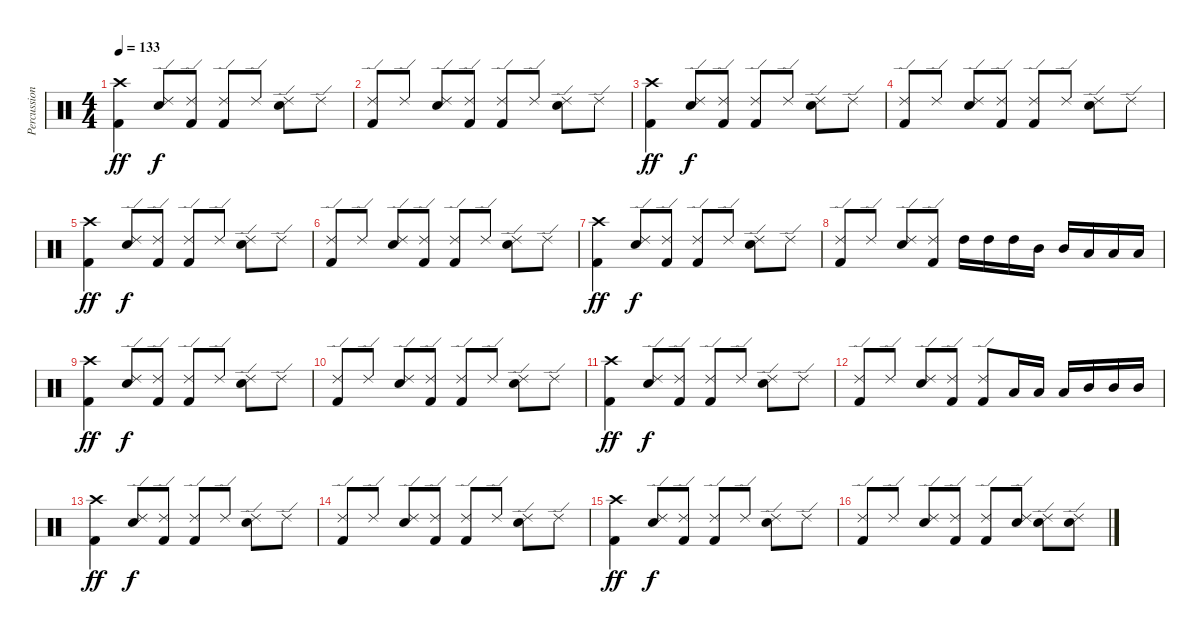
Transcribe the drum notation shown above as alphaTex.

\track ("Percussion" "Percussion") {instrument percussion}
\staff {score}
\articulation defaults
\ts (4 4)
\tempo 133
\clef neutral
\ks c
("Crash high (hit)" "Kick (hit) 2").4{dy ff} ("Ride (edge) 2" "Snare (hit) 2").8{dy f} ("Ride (edge) 2" "Kick (hit) 2").8 ("Ride (edge) 2" "Kick (hit) 2").8 "Ride (edge) 2".8 ("Ride (edge) 2" "Snare (hit) 2").8 "Ride (edge) 2".8 |
("Ride (edge) 2" "Kick (hit) 2").8 "Ride (edge) 2".8 ("Ride (edge) 2" "Snare (hit) 2").8 ("Ride (edge) 2" "Kick (hit) 2").8 ("Ride (edge) 2" "Kick (hit) 2").8 "Ride (edge) 2".8 ("Ride (edge) 2" "Snare (hit) 2").8 "Ride (edge) 2".8 |
("Crash high (hit)" "Kick (hit) 2").4{dy ff} ("Ride (edge) 2" "Snare (hit) 2").8{dy f} ("Ride (edge) 2" "Kick (hit) 2").8 ("Ride (edge) 2" "Kick (hit) 2").8 "Ride (edge) 2".8 ("Ride (edge) 2" "Snare (hit) 2").8 "Ride (edge) 2".8 |
("Ride (edge) 2" "Kick (hit) 2").8 "Ride (edge) 2".8 ("Ride (edge) 2" "Snare (hit) 2").8 ("Ride (edge) 2" "Kick (hit) 2").8 ("Ride (edge) 2" "Kick (hit) 2").8 "Ride (edge) 2".8 ("Ride (edge) 2" "Snare (hit) 2").8 "Ride (edge) 2".8 |
("Crash high (hit)" "Kick (hit) 2").4{dy ff} ("Ride (edge) 2" "Snare (hit) 2").8{dy f} ("Ride (edge) 2" "Kick (hit) 2").8 ("Ride (edge) 2" "Kick (hit) 2").8 "Ride (edge) 2".8 ("Ride (edge) 2" "Snare (hit) 2").8 "Ride (edge) 2".8 |
("Ride (edge) 2" "Kick (hit) 2").8 "Ride (edge) 2".8 ("Ride (edge) 2" "Snare (hit) 2").8 ("Ride (edge) 2" "Kick (hit) 2").8 ("Ride (edge) 2" "Kick (hit) 2").8 "Ride (edge) 2".8 ("Ride (edge) 2" "Snare (hit) 2").8 "Ride (edge) 2".8 |
("Crash high (hit)" "Kick (hit) 2").4{dy ff} ("Ride (edge) 2" "Snare (hit) 2").8{dy f} ("Ride (edge) 2" "Kick (hit) 2").8 ("Ride (edge) 2" "Kick (hit) 2").8 "Ride (edge) 2".8 ("Ride (edge) 2" "Snare (hit) 2").8 "Ride (edge) 2".8 |
("Ride (edge) 2" "Kick (hit) 2").8 "Ride (edge) 2".8 ("Ride (edge) 2" "Snare (hit) 2").8 ("Ride (edge) 2" "Kick (hit) 2").8 "High Tom (hit)".16 "High Tom (hit)".16 "High Tom (hit)".16 "Mid Tom (hit)".16 "Mid Tom (hit)".16 "Low Tom (hit)".16 "Low Tom (hit)".16 "Low Tom (hit)".16 |
("Crash high (hit)" "Kick (hit) 2").4{dy ff} ("Ride (edge) 2" "Snare (hit) 2").8{dy f} ("Ride (edge) 2" "Kick (hit) 2").8 ("Ride (edge) 2" "Kick (hit) 2").8 "Ride (edge) 2".8 ("Ride (edge) 2" "Snare (hit) 2").8 "Ride (edge) 2".8 |
("Ride (edge) 2" "Kick (hit) 2").8 "Ride (edge) 2".8 ("Ride (edge) 2" "Snare (hit) 2").8 ("Ride (edge) 2" "Kick (hit) 2").8 ("Ride (edge) 2" "Kick (hit) 2").8 "Ride (edge) 2".8 ("Ride (edge) 2" "Snare (hit) 2").8 "Ride (edge) 2".8 |
("Crash high (hit)" "Kick (hit) 2").4{dy ff} ("Ride (edge) 2" "Snare (hit) 2").8{dy f} ("Ride (edge) 2" "Kick (hit) 2").8 ("Ride (edge) 2" "Kick (hit) 2").8 "Ride (edge) 2".8 ("Ride (edge) 2" "Snare (hit) 2").8 "Ride (edge) 2".8 |
("Ride (edge) 2" "Kick (hit) 2").8 "Ride (edge) 2".8 ("Ride (edge) 2" "Snare (hit) 2").8 ("Ride (edge) 2" "Kick (hit) 2").8 ("Ride (edge) 2" "Kick (hit) 2").8 "Low Tom (hit)".16 "Low Tom (hit)".16 "Low Tom (hit)".16 "Mid Tom (hit)".16 "Mid Tom (hit)".16 "Mid Tom (hit)".16 |
("Crash high (hit)" "Kick (hit) 2").4{dy ff} ("Ride (edge) 2" "Snare (hit) 2").8{dy f} ("Ride (edge) 2" "Kick (hit) 2").8 ("Ride (edge) 2" "Kick (hit) 2").8 "Ride (edge) 2".8 ("Ride (edge) 2" "Snare (hit) 2").8 "Ride (edge) 2".8 |
("Ride (edge) 2" "Kick (hit) 2").8 "Ride (edge) 2".8 ("Ride (edge) 2" "Snare (hit) 2").8 ("Ride (edge) 2" "Kick (hit) 2").8 ("Ride (edge) 2" "Kick (hit) 2").8 "Ride (edge) 2".8 ("Ride (edge) 2" "Snare (hit) 2").8 "Ride (edge) 2".8 |
("Crash high (hit)" "Kick (hit) 2").4{dy ff} ("Ride (edge) 2" "Snare (hit) 2").8{dy f} ("Ride (edge) 2" "Kick (hit) 2").8 ("Ride (edge) 2" "Kick (hit) 2").8 "Ride (edge) 2".8 ("Ride (edge) 2" "Snare (hit) 2").8 "Ride (edge) 2".8 |
("Ride (edge) 2" "Kick (hit) 2").8 "Ride (edge) 2".8 ("Ride (edge) 2" "Snare (hit) 2").8 ("Ride (edge) 2" "Kick (hit) 2").8 ("Ride (edge) 2" "Kick (hit) 2").8 ("Ride (edge) 2" "Snare (hit) 2").8 ("Ride (edge) 2" "Snare (hit) 2").8 ("Ride (edge) 2" "Snare (hit) 2").8
